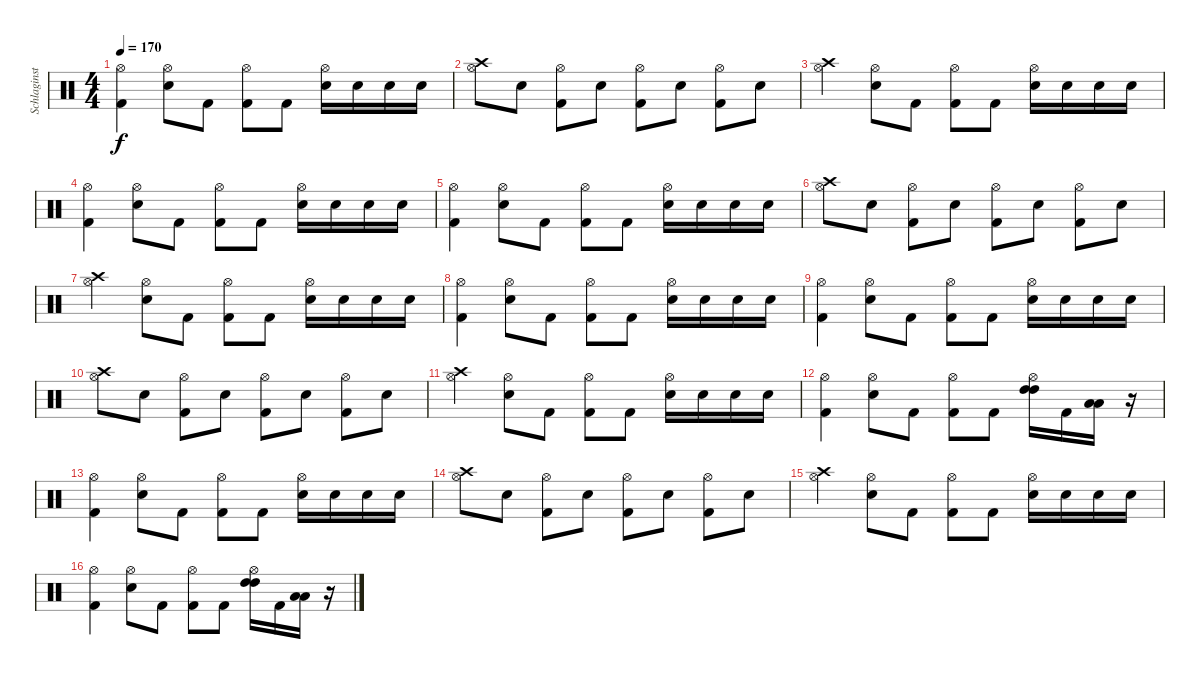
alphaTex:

\track ("Schlaginstrumente - Auswahl" "Schlaginst") {instrument percussion}
\staff {score}
\articulation defaults
\ts (4 4)
\tempo 170
\clef neutral
\ks c
("Hi-Hat (open)" "Kick (hit) 2").4{dy f} ("Hi-Hat (open)" "Electric Snare (hit)").8 "Kick (hit) 2".8 ("Hi-Hat (open)" "Kick (hit) 2").8 "Kick (hit) 2".8 ("Hi-Hat (open)" "Electric Snare (hit)").16 "Electric Snare (hit)".16 "Electric Snare (hit)".16 "Electric Snare (hit)".16 |
("Hi-Hat (open)" "Crash high (hit)").8 "Electric Snare (hit)".8 ("Hi-Hat (open)" "Kick (hit) 2").8 "Electric Snare (hit)".8 ("Hi-Hat (open)" "Kick (hit) 2").8 "Electric Snare (hit)".8 ("Hi-Hat (open)" "Kick (hit) 2").8 "Electric Snare (hit)".8 |
("Hi-Hat (open)" "Crash high (hit)").4 ("Hi-Hat (open)" "Electric Snare (hit)").8 "Kick (hit) 2".8 ("Hi-Hat (open)" "Kick (hit) 2").8 "Kick (hit) 2".8 ("Hi-Hat (open)" "Electric Snare (hit)").16 "Electric Snare (hit)".16 "Electric Snare (hit)".16 "Electric Snare (hit)".16 |
("Hi-Hat (open)" "Kick (hit) 2").4 ("Hi-Hat (open)" "Electric Snare (hit)").8 "Kick (hit) 2".8 ("Hi-Hat (open)" "Kick (hit) 2").8 "Kick (hit) 2".8 ("Hi-Hat (open)" "Electric Snare (hit)").16 "Electric Snare (hit)".16 "Electric Snare (hit)".16 "Electric Snare (hit)".16 |
("Hi-Hat (open)" "Kick (hit) 2").4 ("Hi-Hat (open)" "Electric Snare (hit)").8 "Kick (hit) 2".8 ("Hi-Hat (open)" "Kick (hit) 2").8 "Kick (hit) 2".8 ("Hi-Hat (open)" "Electric Snare (hit)").16 "Electric Snare (hit)".16 "Electric Snare (hit)".16 "Electric Snare (hit)".16 |
("Hi-Hat (open)" "Crash high (hit)").8 "Electric Snare (hit)".8 ("Hi-Hat (open)" "Kick (hit) 2").8 "Electric Snare (hit)".8 ("Hi-Hat (open)" "Kick (hit) 2").8 "Electric Snare (hit)".8 ("Hi-Hat (open)" "Kick (hit) 2").8 "Electric Snare (hit)".8 |
("Hi-Hat (open)" "Crash high (hit)").4 ("Hi-Hat (open)" "Electric Snare (hit)").8 "Kick (hit) 2".8 ("Hi-Hat (open)" "Kick (hit) 2").8 "Kick (hit) 2".8 ("Hi-Hat (open)" "Electric Snare (hit)").16 "Electric Snare (hit)".16 "Electric Snare (hit)".16 "Electric Snare (hit)".16 |
("Hi-Hat (open)" "Kick (hit) 2").4 ("Hi-Hat (open)" "Electric Snare (hit)").8 "Kick (hit) 2".8 ("Hi-Hat (open)" "Kick (hit) 2").8 "Kick (hit) 2".8 ("Hi-Hat (open)" "Electric Snare (hit)").16 "Electric Snare (hit)".16 "Electric Snare (hit)".16 "Electric Snare (hit)".16 |
("Hi-Hat (open)" "Kick (hit) 2").4 ("Hi-Hat (open)" "Electric Snare (hit)").8 "Kick (hit) 2".8 ("Hi-Hat (open)" "Kick (hit) 2").8 "Kick (hit) 2".8 ("Hi-Hat (open)" "Electric Snare (hit)").16 "Electric Snare (hit)".16 "Electric Snare (hit)".16 "Electric Snare (hit)".16 |
("Hi-Hat (open)" "Crash high (hit)").8 "Electric Snare (hit)".8 ("Hi-Hat (open)" "Kick (hit) 2").8 "Electric Snare (hit)".8 ("Hi-Hat (open)" "Kick (hit) 2").8 "Electric Snare (hit)".8 ("Hi-Hat (open)" "Kick (hit) 2").8 "Electric Snare (hit)".8 |
("Hi-Hat (open)" "Crash high (hit)").4 ("Hi-Hat (open)" "Electric Snare (hit)").8 "Kick (hit) 2".8 ("Hi-Hat (open)" "Kick (hit) 2").8 "Kick (hit) 2".8 ("Hi-Hat (open)" "Electric Snare (hit)").16 "Electric Snare (hit)".16 "Electric Snare (hit)".16 "Electric Snare (hit)".16 |
("Hi-Hat (open)" "Kick (hit) 2").4 ("Hi-Hat (open)" "Electric Snare (hit)").8 "Kick (hit) 2".8 ("Hi-Hat (open)" "Kick (hit) 2").8 "Kick (hit) 2".8 ("Hi-Hat (open)" "High Tom (hit)" "High Tom (hit)").16 "Kick (hit) 2".16 ("Low Tom (hit)" "Low Tom (hit)").16 r.16 |
("Hi-Hat (open)" "Kick (hit) 2").4 ("Hi-Hat (open)" "Electric Snare (hit)").8 "Kick (hit) 2".8 ("Hi-Hat (open)" "Kick (hit) 2").8 "Kick (hit) 2".8 ("Hi-Hat (open)" "Electric Snare (hit)").16 "Electric Snare (hit)".16 "Electric Snare (hit)".16 "Electric Snare (hit)".16 |
("Hi-Hat (open)" "Crash high (hit)").8 "Electric Snare (hit)".8 ("Hi-Hat (open)" "Kick (hit) 2").8 "Electric Snare (hit)".8 ("Hi-Hat (open)" "Kick (hit) 2").8 "Electric Snare (hit)".8 ("Hi-Hat (open)" "Kick (hit) 2").8 "Electric Snare (hit)".8 |
("Hi-Hat (open)" "Crash high (hit)").4 ("Hi-Hat (open)" "Electric Snare (hit)").8 "Kick (hit) 2".8 ("Hi-Hat (open)" "Kick (hit) 2").8 "Kick (hit) 2".8 ("Hi-Hat (open)" "Electric Snare (hit)").16 "Electric Snare (hit)".16 "Electric Snare (hit)".16 "Electric Snare (hit)".16 |
("Hi-Hat (open)" "Kick (hit) 2").4 ("Hi-Hat (open)" "Electric Snare (hit)").8 "Kick (hit) 2".8 ("Hi-Hat (open)" "Kick (hit) 2").8 "Kick (hit) 2".8 ("Hi-Hat (open)" "High Tom (hit)" "High Tom (hit)").16 "Kick (hit) 2".16 ("Low Tom (hit)" "Low Tom (hit)").16 r.16
